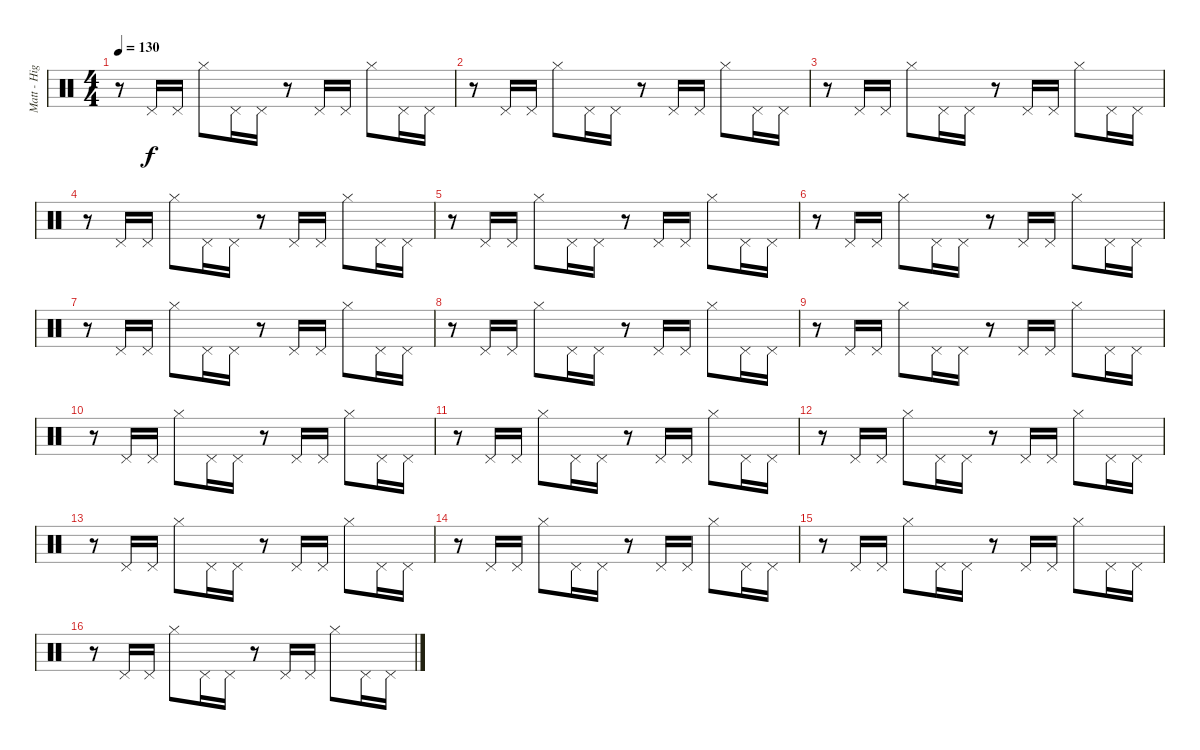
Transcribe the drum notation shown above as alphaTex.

\track ("Matt - High Hat" "Matt - Hig") {instrument percussion}
\staff {score}
\articulation defaults
\ts (4 4)
\tempo 130
\clef neutral
\ks c
r.8{dy f} "Pedal Hi-Hat (hit)".16 "Pedal Hi-Hat (hit)".16 "Hi-Hat (closed)".8 "Pedal Hi-Hat (hit)".16 "Pedal Hi-Hat (hit)".16 r.8 "Pedal Hi-Hat (hit)".16 "Pedal Hi-Hat (hit)".16 "Hi-Hat (closed)".8 "Pedal Hi-Hat (hit)".16 "Pedal Hi-Hat (hit)".16 |
r.8 "Pedal Hi-Hat (hit)".16 "Pedal Hi-Hat (hit)".16 "Hi-Hat (closed)".8 "Pedal Hi-Hat (hit)".16 "Pedal Hi-Hat (hit)".16 r.8 "Pedal Hi-Hat (hit)".16 "Pedal Hi-Hat (hit)".16 "Hi-Hat (closed)".8 "Pedal Hi-Hat (hit)".16 "Pedal Hi-Hat (hit)".16 |
r.8 "Pedal Hi-Hat (hit)".16 "Pedal Hi-Hat (hit)".16 "Hi-Hat (closed)".8 "Pedal Hi-Hat (hit)".16 "Pedal Hi-Hat (hit)".16 r.8 "Pedal Hi-Hat (hit)".16 "Pedal Hi-Hat (hit)".16 "Hi-Hat (closed)".8 "Pedal Hi-Hat (hit)".16 "Pedal Hi-Hat (hit)".16 |
r.8 "Pedal Hi-Hat (hit)".16 "Pedal Hi-Hat (hit)".16 "Hi-Hat (closed)".8 "Pedal Hi-Hat (hit)".16 "Pedal Hi-Hat (hit)".16 r.8 "Pedal Hi-Hat (hit)".16 "Pedal Hi-Hat (hit)".16 "Hi-Hat (closed)".8 "Pedal Hi-Hat (hit)".16 "Pedal Hi-Hat (hit)".16 |
r.8 "Pedal Hi-Hat (hit)".16 "Pedal Hi-Hat (hit)".16 "Hi-Hat (closed)".8 "Pedal Hi-Hat (hit)".16 "Pedal Hi-Hat (hit)".16 r.8 "Pedal Hi-Hat (hit)".16 "Pedal Hi-Hat (hit)".16 "Hi-Hat (closed)".8 "Pedal Hi-Hat (hit)".16 "Pedal Hi-Hat (hit)".16 |
r.8 "Pedal Hi-Hat (hit)".16 "Pedal Hi-Hat (hit)".16 "Hi-Hat (closed)".8 "Pedal Hi-Hat (hit)".16 "Pedal Hi-Hat (hit)".16 r.8 "Pedal Hi-Hat (hit)".16 "Pedal Hi-Hat (hit)".16 "Hi-Hat (closed)".8 "Pedal Hi-Hat (hit)".16 "Pedal Hi-Hat (hit)".16 |
r.8 "Pedal Hi-Hat (hit)".16 "Pedal Hi-Hat (hit)".16 "Hi-Hat (closed)".8 "Pedal Hi-Hat (hit)".16 "Pedal Hi-Hat (hit)".16 r.8 "Pedal Hi-Hat (hit)".16 "Pedal Hi-Hat (hit)".16 "Hi-Hat (closed)".8 "Pedal Hi-Hat (hit)".16 "Pedal Hi-Hat (hit)".16 |
r.8 "Pedal Hi-Hat (hit)".16 "Pedal Hi-Hat (hit)".16 "Hi-Hat (closed)".8 "Pedal Hi-Hat (hit)".16 "Pedal Hi-Hat (hit)".16 r.8 "Pedal Hi-Hat (hit)".16 "Pedal Hi-Hat (hit)".16 "Hi-Hat (closed)".8 "Pedal Hi-Hat (hit)".16 "Pedal Hi-Hat (hit)".16 |
r.8 "Pedal Hi-Hat (hit)".16 "Pedal Hi-Hat (hit)".16 "Hi-Hat (closed)".8 "Pedal Hi-Hat (hit)".16 "Pedal Hi-Hat (hit)".16 r.8 "Pedal Hi-Hat (hit)".16 "Pedal Hi-Hat (hit)".16 "Hi-Hat (closed)".8 "Pedal Hi-Hat (hit)".16 "Pedal Hi-Hat (hit)".16 |
r.8 "Pedal Hi-Hat (hit)".16 "Pedal Hi-Hat (hit)".16 "Hi-Hat (closed)".8 "Pedal Hi-Hat (hit)".16 "Pedal Hi-Hat (hit)".16 r.8 "Pedal Hi-Hat (hit)".16 "Pedal Hi-Hat (hit)".16 "Hi-Hat (closed)".8 "Pedal Hi-Hat (hit)".16 "Pedal Hi-Hat (hit)".16 |
r.8 "Pedal Hi-Hat (hit)".16 "Pedal Hi-Hat (hit)".16 "Hi-Hat (closed)".8 "Pedal Hi-Hat (hit)".16 "Pedal Hi-Hat (hit)".16 r.8 "Pedal Hi-Hat (hit)".16 "Pedal Hi-Hat (hit)".16 "Hi-Hat (closed)".8 "Pedal Hi-Hat (hit)".16 "Pedal Hi-Hat (hit)".16 |
r.8 "Pedal Hi-Hat (hit)".16 "Pedal Hi-Hat (hit)".16 "Hi-Hat (closed)".8 "Pedal Hi-Hat (hit)".16 "Pedal Hi-Hat (hit)".16 r.8 "Pedal Hi-Hat (hit)".16 "Pedal Hi-Hat (hit)".16 "Hi-Hat (closed)".8 "Pedal Hi-Hat (hit)".16 "Pedal Hi-Hat (hit)".16 |
r.8 "Pedal Hi-Hat (hit)".16 "Pedal Hi-Hat (hit)".16 "Hi-Hat (closed)".8 "Pedal Hi-Hat (hit)".16 "Pedal Hi-Hat (hit)".16 r.8 "Pedal Hi-Hat (hit)".16 "Pedal Hi-Hat (hit)".16 "Hi-Hat (closed)".8 "Pedal Hi-Hat (hit)".16 "Pedal Hi-Hat (hit)".16 |
r.8 "Pedal Hi-Hat (hit)".16 "Pedal Hi-Hat (hit)".16 "Hi-Hat (closed)".8 "Pedal Hi-Hat (hit)".16 "Pedal Hi-Hat (hit)".16 r.8 "Pedal Hi-Hat (hit)".16 "Pedal Hi-Hat (hit)".16 "Hi-Hat (closed)".8 "Pedal Hi-Hat (hit)".16 "Pedal Hi-Hat (hit)".16 |
r.8 "Pedal Hi-Hat (hit)".16 "Pedal Hi-Hat (hit)".16 "Hi-Hat (closed)".8 "Pedal Hi-Hat (hit)".16 "Pedal Hi-Hat (hit)".16 r.8 "Pedal Hi-Hat (hit)".16 "Pedal Hi-Hat (hit)".16 "Hi-Hat (closed)".8 "Pedal Hi-Hat (hit)".16 "Pedal Hi-Hat (hit)".16 |
r.8 "Pedal Hi-Hat (hit)".16 "Pedal Hi-Hat (hit)".16 "Hi-Hat (closed)".8 "Pedal Hi-Hat (hit)".16 "Pedal Hi-Hat (hit)".16 r.8 "Pedal Hi-Hat (hit)".16 "Pedal Hi-Hat (hit)".16 "Hi-Hat (closed)".8 "Pedal Hi-Hat (hit)".16 "Pedal Hi-Hat (hit)".16
